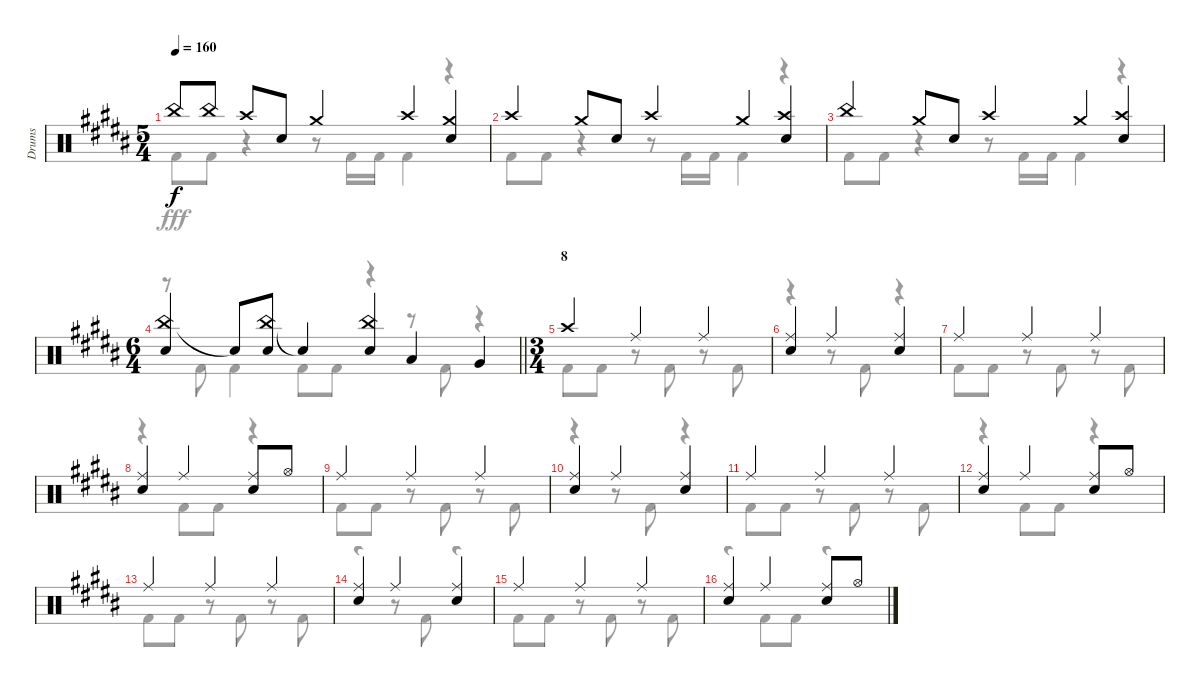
\track ("Drums" "Drums") {instrument percussion}
\staff {score}
\articulation defaults
\voice
\ts (5 4)
\tempo 160
\clef neutral
\ks b "China (hit)".8{dy f} "China (hit)".8 "Crash high (hit)".8 "Snare (hit) 2".8 "Crash medium (hit)".4 "Crash high (hit)".4
("Crash medium (hit)" "Snare (hit) 2").4 |
"Crash high (hit)".4 "Crash medium (hit)".8 "Snare (hit) 2".8 "Crash high (hit)".4 "Crash medium (hit)".4 ("Crash high (hit)" "Snare (hit) 2").4 |
"China (hit)".4 "Crash medium (hit)".8 "Snare (hit) 2".8 "Crash high (hit)".4 "Crash medium (hit)".4 ("Crash high (hit)" "Snare (hit) 2").4 |
\ts (6 4)
\barLineRight lightlight
("China (hit)" "Snare (hit) 2").4 "Snare (hit)"{t}.8 ("China (hit)" "Snare (hit) 2").8 "Snare (hit)"{t}.4 ("China (hit)" "Snare (hit) 2").4 "Low Tom (hit)".4 "Very Low Tom (hit)".4 |
\ts (3 4)
\section ("" "8")
"Crash high (hit)".4 "Ride (middle)".4 "Ride (middle)".4 |
("Ride (middle)" "Snare (hit) 2").4 "Ride (middle)".4 ("Ride (middle)" "Snare (hit) 2").4 |
"Ride (middle)".4 "Ride (middle)".4 "Ride (middle)".4 |
("Ride (middle)" "Snare (hit) 2").4 "Ride (middle)".4 ("Ride (middle)" "Snare (hit) 2").8 "Hi-Hat (open)".8 |
"Ride (middle)".4 "Ride (middle)".4 "Ride (middle)".4 |
("Ride (middle)" "Snare (hit) 2").4 "Ride (middle)".4 ("Ride (middle)" "Snare (hit) 2").4 |
"Ride (middle)".4 "Ride (middle)".4 "Ride (middle)".4 |
("Ride (middle)" "Snare (hit) 2").4 "Ride (middle)".4 ("Ride (middle)" "Snare (hit) 2").8 "Hi-Hat (open)".8 |
"Ride (middle)".4 "Ride (middle)".4 "Ride (middle)".4 |
("Ride (middle)" "Snare (hit) 2").4 "Ride (middle)".4 ("Ride (middle)" "Snare (hit) 2").4 |
"Ride (middle)".4 "Ride (middle)".4 "Ride (middle)".4 |
("Ride (middle)" "Snare (hit) 2").4 "Ride (middle)".4 ("Ride (middle)" "Snare (hit) 2").8 "Hi-Hat (open)".8
\voice
\clef neutral
\ottava regular
\simile none
\ks b "Kick (hit) 2".8{dy fff} "Kick (hit) 2".8
r.4 r.8 "Kick (hit) 2".16 "Kick (hit) 2".16 "Kick (hit) 2".4 r.4 |
"Kick (hit) 2".8 "Kick (hit) 2".8 r.4 r.8 "Kick (hit) 2".16 "Kick (hit) 2".16 "Kick (hit) 2".4 r.4 |
"Kick (hit) 2".8 "Kick (hit) 2".8 r.4 r.8 "Kick (hit) 2".16 "Kick (hit) 2".16 "Kick (hit) 2".4 r.4 |
\barLineRight lightlight
r.8 "Kick (hit) 2".8 "Kick (hit) 2".4 "Kick (hit) 2".8 "Kick (hit) 2".8 r.4 r.8 "Kick (hit) 2".8 r.4 |
"Kick (hit) 2".8 "Kick (hit) 2".8 r.8 "Kick (hit) 2".8 r.8 "Kick (hit) 2".8 |
r.4 r.8 "Kick (hit) 2".8 r.4 |
"Kick (hit) 2".8 "Kick (hit) 2".8 r.8 "Kick (hit) 2".8 r.8 "Kick (hit) 2".8 |
r.4 "Kick (hit) 2".8 "Kick (hit) 2".8 r.4 |
"Kick (hit) 2".8 "Kick (hit) 2".8 r.8 "Kick (hit) 2".8 r.8 "Kick (hit) 2".8 |
r.4 r.8 "Kick (hit) 2".8 r.4 |
"Kick (hit) 2".8 "Kick (hit) 2".8 r.8 "Kick (hit) 2".8 r.8 "Kick (hit) 2".8 |
r.4 "Kick (hit) 2".8 "Kick (hit) 2".8 r.4 |
"Kick (hit) 2".8 "Kick (hit) 2".8 r.8 "Kick (hit) 2".8 r.8 "Kick (hit) 2".8 |
r.4 r.8 "Kick (hit) 2".8 r.4 |
"Kick (hit) 2".8 "Kick (hit) 2".8 r.8 "Kick (hit) 2".8 r.8 "Kick (hit) 2".8 |
r.4 "Kick (hit) 2".8 "Kick (hit) 2".8 r.4
